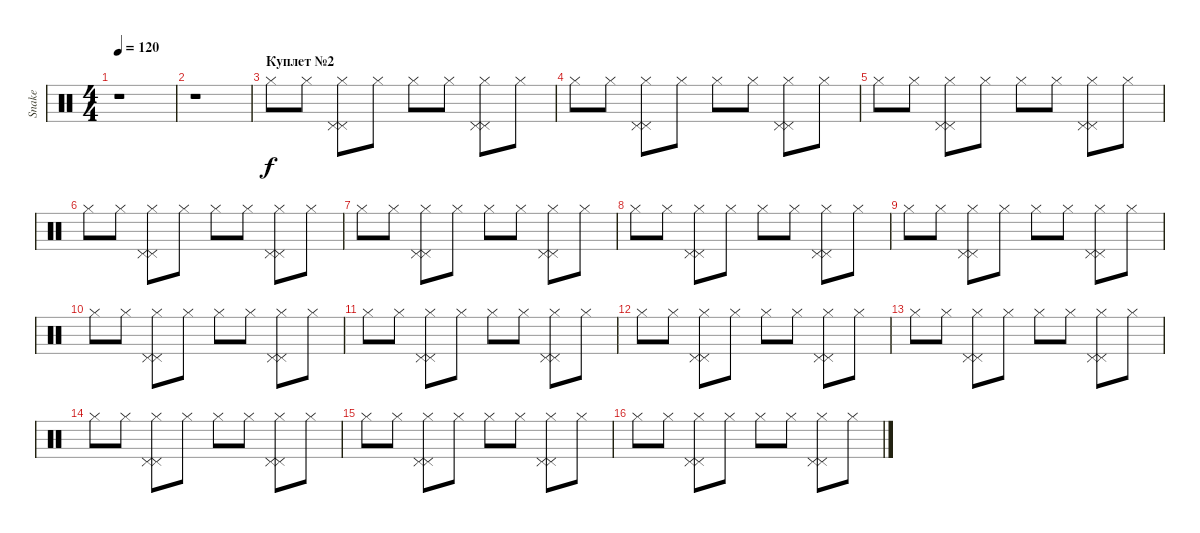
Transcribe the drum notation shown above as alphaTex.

\track ("Snake" "Snake") {instrument percussion}
\staff {score}
\articulation defaults
\ts (4 4)
\tempo 120
\clef neutral
\ks c
r.1{dy f} |
r.1 |
\section ("" "Куплет №2")
"Hi-Hat (closed)".8 "Hi-Hat (closed)".8 ("Hi-Hat (closed)" "Pedal Hi-Hat (hit)" "Pedal Hi-Hat (hit)").8 "Hi-Hat (closed)".8 "Hi-Hat (closed)".8 "Hi-Hat (closed)".8 ("Hi-Hat (closed)" "Pedal Hi-Hat (hit)" "Pedal Hi-Hat (hit)").8 "Hi-Hat (closed)".8 |
"Hi-Hat (closed)".8 "Hi-Hat (closed)".8 ("Hi-Hat (closed)" "Pedal Hi-Hat (hit)" "Pedal Hi-Hat (hit)").8 "Hi-Hat (closed)".8 "Hi-Hat (closed)".8 "Hi-Hat (closed)".8 ("Hi-Hat (closed)" "Pedal Hi-Hat (hit)" "Pedal Hi-Hat (hit)").8 "Hi-Hat (closed)".8 |
"Hi-Hat (closed)".8 "Hi-Hat (closed)".8 ("Hi-Hat (closed)" "Pedal Hi-Hat (hit)" "Pedal Hi-Hat (hit)").8 "Hi-Hat (closed)".8 "Hi-Hat (closed)".8 "Hi-Hat (closed)".8 ("Hi-Hat (closed)" "Pedal Hi-Hat (hit)" "Pedal Hi-Hat (hit)").8 "Hi-Hat (closed)".8 |
"Hi-Hat (closed)".8 "Hi-Hat (closed)".8 ("Hi-Hat (closed)" "Pedal Hi-Hat (hit)" "Pedal Hi-Hat (hit)").8 "Hi-Hat (closed)".8 "Hi-Hat (closed)".8 "Hi-Hat (closed)".8 ("Hi-Hat (closed)" "Pedal Hi-Hat (hit)" "Pedal Hi-Hat (hit)").8 "Hi-Hat (closed)".8 |
"Hi-Hat (closed)".8 "Hi-Hat (closed)".8 ("Hi-Hat (closed)" "Pedal Hi-Hat (hit)" "Pedal Hi-Hat (hit)").8 "Hi-Hat (closed)".8 "Hi-Hat (closed)".8 "Hi-Hat (closed)".8 ("Hi-Hat (closed)" "Pedal Hi-Hat (hit)" "Pedal Hi-Hat (hit)").8 "Hi-Hat (closed)".8 |
"Hi-Hat (closed)".8 "Hi-Hat (closed)".8 ("Hi-Hat (closed)" "Pedal Hi-Hat (hit)" "Pedal Hi-Hat (hit)").8 "Hi-Hat (closed)".8 "Hi-Hat (closed)".8 "Hi-Hat (closed)".8 ("Hi-Hat (closed)" "Pedal Hi-Hat (hit)" "Pedal Hi-Hat (hit)").8 "Hi-Hat (closed)".8 |
"Hi-Hat (closed)".8 "Hi-Hat (closed)".8 ("Hi-Hat (closed)" "Pedal Hi-Hat (hit)" "Pedal Hi-Hat (hit)").8 "Hi-Hat (closed)".8 "Hi-Hat (closed)".8 "Hi-Hat (closed)".8 ("Hi-Hat (closed)" "Pedal Hi-Hat (hit)" "Pedal Hi-Hat (hit)").8 "Hi-Hat (closed)".8 |
"Hi-Hat (closed)".8 "Hi-Hat (closed)".8 ("Hi-Hat (closed)" "Pedal Hi-Hat (hit)" "Pedal Hi-Hat (hit)").8 "Hi-Hat (closed)".8 "Hi-Hat (closed)".8 "Hi-Hat (closed)".8 ("Hi-Hat (closed)" "Pedal Hi-Hat (hit)" "Pedal Hi-Hat (hit)").8 "Hi-Hat (closed)".8 |
"Hi-Hat (closed)".8 "Hi-Hat (closed)".8 ("Hi-Hat (closed)" "Pedal Hi-Hat (hit)" "Pedal Hi-Hat (hit)").8 "Hi-Hat (closed)".8 "Hi-Hat (closed)".8 "Hi-Hat (closed)".8 ("Hi-Hat (closed)" "Pedal Hi-Hat (hit)" "Pedal Hi-Hat (hit)").8 "Hi-Hat (closed)".8 |
"Hi-Hat (closed)".8 "Hi-Hat (closed)".8 ("Hi-Hat (closed)" "Pedal Hi-Hat (hit)" "Pedal Hi-Hat (hit)").8 "Hi-Hat (closed)".8 "Hi-Hat (closed)".8 "Hi-Hat (closed)".8 ("Hi-Hat (closed)" "Pedal Hi-Hat (hit)" "Pedal Hi-Hat (hit)").8 "Hi-Hat (closed)".8 |
"Hi-Hat (closed)".8 "Hi-Hat (closed)".8 ("Hi-Hat (closed)" "Pedal Hi-Hat (hit)" "Pedal Hi-Hat (hit)").8 "Hi-Hat (closed)".8 "Hi-Hat (closed)".8 "Hi-Hat (closed)".8 ("Hi-Hat (closed)" "Pedal Hi-Hat (hit)" "Pedal Hi-Hat (hit)").8 "Hi-Hat (closed)".8 |
"Hi-Hat (closed)".8 "Hi-Hat (closed)".8 ("Hi-Hat (closed)" "Pedal Hi-Hat (hit)" "Pedal Hi-Hat (hit)").8 "Hi-Hat (closed)".8 "Hi-Hat (closed)".8 "Hi-Hat (closed)".8 ("Hi-Hat (closed)" "Pedal Hi-Hat (hit)" "Pedal Hi-Hat (hit)").8 "Hi-Hat (closed)".8 |
"Hi-Hat (closed)".8 "Hi-Hat (closed)".8 ("Hi-Hat (closed)" "Pedal Hi-Hat (hit)" "Pedal Hi-Hat (hit)").8 "Hi-Hat (closed)".8 "Hi-Hat (closed)".8 "Hi-Hat (closed)".8 ("Hi-Hat (closed)" "Pedal Hi-Hat (hit)" "Pedal Hi-Hat (hit)").8 "Hi-Hat (closed)".8 |
"Hi-Hat (closed)".8 "Hi-Hat (closed)".8 ("Hi-Hat (closed)" "Pedal Hi-Hat (hit)" "Pedal Hi-Hat (hit)").8 "Hi-Hat (closed)".8 "Hi-Hat (closed)".8 "Hi-Hat (closed)".8 ("Hi-Hat (closed)" "Pedal Hi-Hat (hit)" "Pedal Hi-Hat (hit)").8 "Hi-Hat (closed)".8
